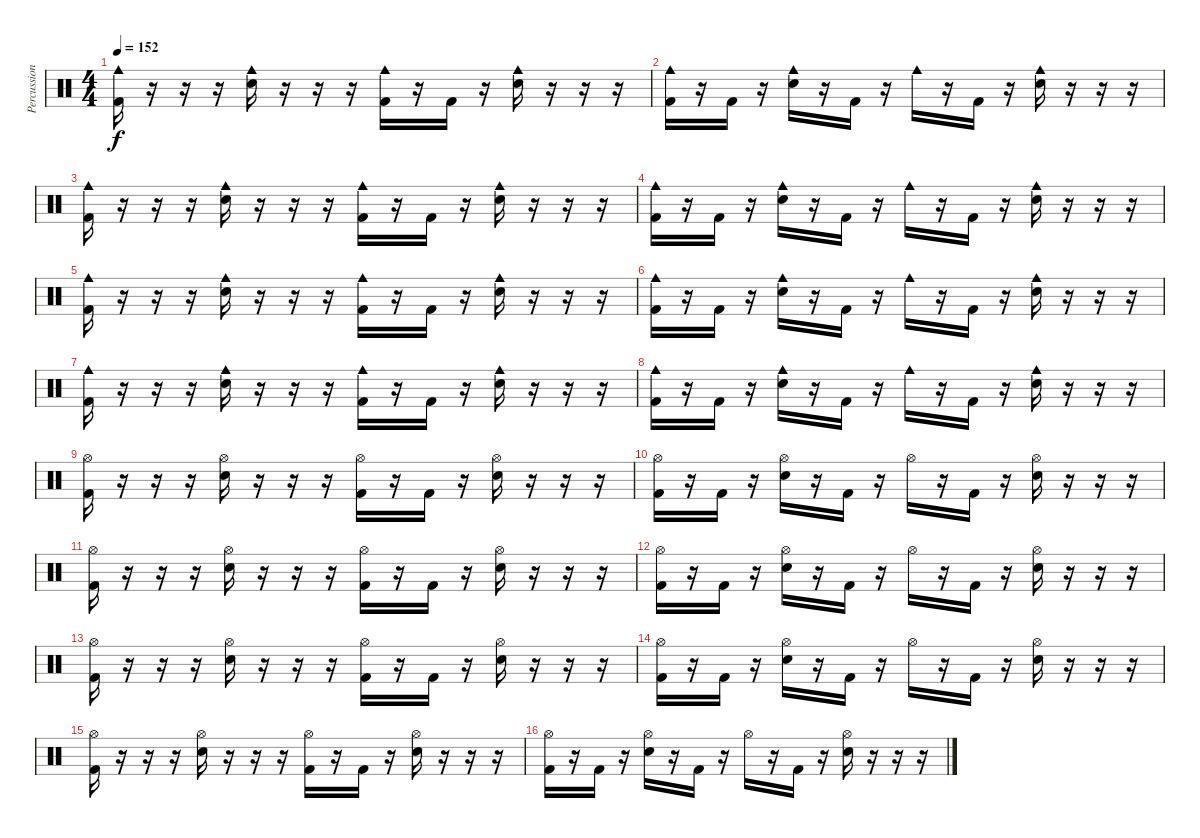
\track ("Percussions" "Percussion") {instrument percussion}
\staff {score}
\articulation defaults
\ts (4 4)
\tempo 152
\clef neutral
\ks c
("Kick (hit) 2" "Cowbell medium (hit)").16{dy f} r.16 r.16 r.16 ("Electric Snare (hit)" "Cowbell medium (hit)").16 r.16 r.16 r.16 ("Kick (hit) 2" "Cowbell medium (hit)").16 r.16 "Kick (hit) 2".16 r.16 ("Electric Snare (hit)" "Cowbell medium (hit)").16 r.16 r.16 r.16 |
("Kick (hit) 2" "Cowbell medium (hit)").16 r.16 "Kick (hit) 2".16 r.16 ("Electric Snare (hit)" "Cowbell medium (hit)").16 r.16 "Kick (hit) 2".16 r.16 "Cowbell medium (hit)".16 r.16 "Kick (hit) 2".16 r.16 ("Electric Snare (hit)" "Cowbell medium (hit)").16 r.16 r.16 r.16 |
("Kick (hit) 2" "Cowbell medium (hit)").16 r.16 r.16 r.16 ("Electric Snare (hit)" "Cowbell medium (hit)").16 r.16 r.16 r.16 ("Kick (hit) 2" "Cowbell medium (hit)").16 r.16 "Kick (hit) 2".16 r.16 ("Electric Snare (hit)" "Cowbell medium (hit)").16 r.16 r.16 r.16 |
("Kick (hit) 2" "Cowbell medium (hit)").16 r.16 "Kick (hit) 2".16 r.16 ("Electric Snare (hit)" "Cowbell medium (hit)").16 r.16 "Kick (hit) 2".16 r.16 "Cowbell medium (hit)".16 r.16 "Kick (hit) 2".16 r.16 ("Electric Snare (hit)" "Cowbell medium (hit)").16 r.16 r.16 r.16 |
("Kick (hit) 2" "Cowbell medium (hit)").16 r.16 r.16 r.16 ("Electric Snare (hit)" "Cowbell medium (hit)").16 r.16 r.16 r.16 ("Kick (hit) 2" "Cowbell medium (hit)").16 r.16 "Kick (hit) 2".16 r.16 ("Electric Snare (hit)" "Cowbell medium (hit)").16 r.16 r.16 r.16 |
("Kick (hit) 2" "Cowbell medium (hit)").16 r.16 "Kick (hit) 2".16 r.16 ("Electric Snare (hit)" "Cowbell medium (hit)").16 r.16 "Kick (hit) 2".16 r.16 "Cowbell medium (hit)".16 r.16 "Kick (hit) 2".16 r.16 ("Electric Snare (hit)" "Cowbell medium (hit)").16 r.16 r.16 r.16 |
("Kick (hit) 2" "Cowbell medium (hit)").16 r.16 r.16 r.16 ("Electric Snare (hit)" "Cowbell medium (hit)").16 r.16 r.16 r.16 ("Kick (hit) 2" "Cowbell medium (hit)").16 r.16 "Kick (hit) 2".16 r.16 ("Electric Snare (hit)" "Cowbell medium (hit)").16 r.16 r.16 r.16 |
("Kick (hit) 2" "Cowbell medium (hit)").16 r.16 "Kick (hit) 2".16 r.16 ("Electric Snare (hit)" "Cowbell medium (hit)").16 r.16 "Kick (hit) 2".16 r.16 "Cowbell medium (hit)".16 r.16 "Kick (hit) 2".16 r.16 ("Electric Snare (hit)" "Cowbell medium (hit)").16 r.16 r.16 r.16 |
("Kick (hit) 2" "Hi-Hat (open)").16 r.16 r.16 r.16 ("Electric Snare (hit)" "Hi-Hat (open)").16 r.16 r.16 r.16 ("Kick (hit) 2" "Hi-Hat (open)").16 r.16 "Kick (hit) 2".16 r.16 ("Electric Snare (hit)" "Hi-Hat (open)").16 r.16 r.16 r.16 |
("Kick (hit) 2" "Hi-Hat (open)").16 r.16 "Kick (hit) 2".16 r.16 ("Electric Snare (hit)" "Hi-Hat (open)").16 r.16 "Kick (hit) 2".16 r.16 "Hi-Hat (open)".16 r.16 "Kick (hit) 2".16 r.16 ("Electric Snare (hit)" "Hi-Hat (open)").16 r.16 r.16 r.16 |
("Kick (hit) 2" "Hi-Hat (open)").16 r.16 r.16 r.16 ("Electric Snare (hit)" "Hi-Hat (open)").16 r.16 r.16 r.16 ("Kick (hit) 2" "Hi-Hat (open)").16 r.16 "Kick (hit) 2".16 r.16 ("Electric Snare (hit)" "Hi-Hat (open)").16 r.16 r.16 r.16 |
("Kick (hit) 2" "Hi-Hat (open)").16 r.16 "Kick (hit) 2".16 r.16 ("Electric Snare (hit)" "Hi-Hat (open)").16 r.16 "Kick (hit) 2".16 r.16 "Hi-Hat (open)".16 r.16 "Kick (hit) 2".16 r.16 ("Electric Snare (hit)" "Hi-Hat (open)").16 r.16 r.16 r.16 |
("Kick (hit) 2" "Hi-Hat (open)").16 r.16 r.16 r.16 ("Electric Snare (hit)" "Hi-Hat (open)").16 r.16 r.16 r.16 ("Kick (hit) 2" "Hi-Hat (open)").16 r.16 "Kick (hit) 2".16 r.16 ("Electric Snare (hit)" "Hi-Hat (open)").16 r.16 r.16 r.16 |
("Kick (hit) 2" "Hi-Hat (open)").16 r.16 "Kick (hit) 2".16 r.16 ("Electric Snare (hit)" "Hi-Hat (open)").16 r.16 "Kick (hit) 2".16 r.16 "Hi-Hat (open)".16 r.16 "Kick (hit) 2".16 r.16 ("Electric Snare (hit)" "Hi-Hat (open)").16 r.16 r.16 r.16 |
("Kick (hit) 2" "Hi-Hat (open)").16 r.16 r.16 r.16 ("Electric Snare (hit)" "Hi-Hat (open)").16 r.16 r.16 r.16 ("Kick (hit) 2" "Hi-Hat (open)").16 r.16 "Kick (hit) 2".16 r.16 ("Electric Snare (hit)" "Hi-Hat (open)").16 r.16 r.16 r.16 |
("Kick (hit) 2" "Hi-Hat (open)").16 r.16 "Kick (hit) 2".16 r.16 ("Electric Snare (hit)" "Hi-Hat (open)").16 r.16 "Kick (hit) 2".16 r.16 "Hi-Hat (open)".16 r.16 "Kick (hit) 2".16 r.16 ("Electric Snare (hit)" "Hi-Hat (open)").16 r.16 r.16 r.16
